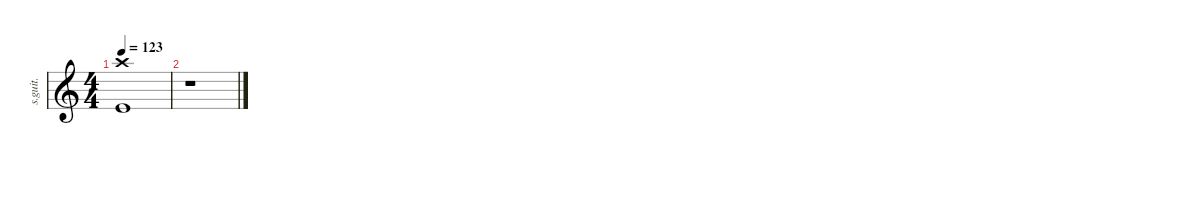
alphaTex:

\defaultSystemsLayout 4
\hideDynamics
\bracketExtendMode nobrackets
\track ("Dave Grohl" "s.guit.") {instrument percussion}
\staff {score}
\articulation defaults
\ts (4 4)
\tempo 123
\clef g2
\ks c
("Kick (hit)" "Crash high (hit)").1{lyrics (0 "") lyrics (1 "") lyrics (2 "") lyrics (3 "") lyrics (4 "") dy fff} |
r.1
